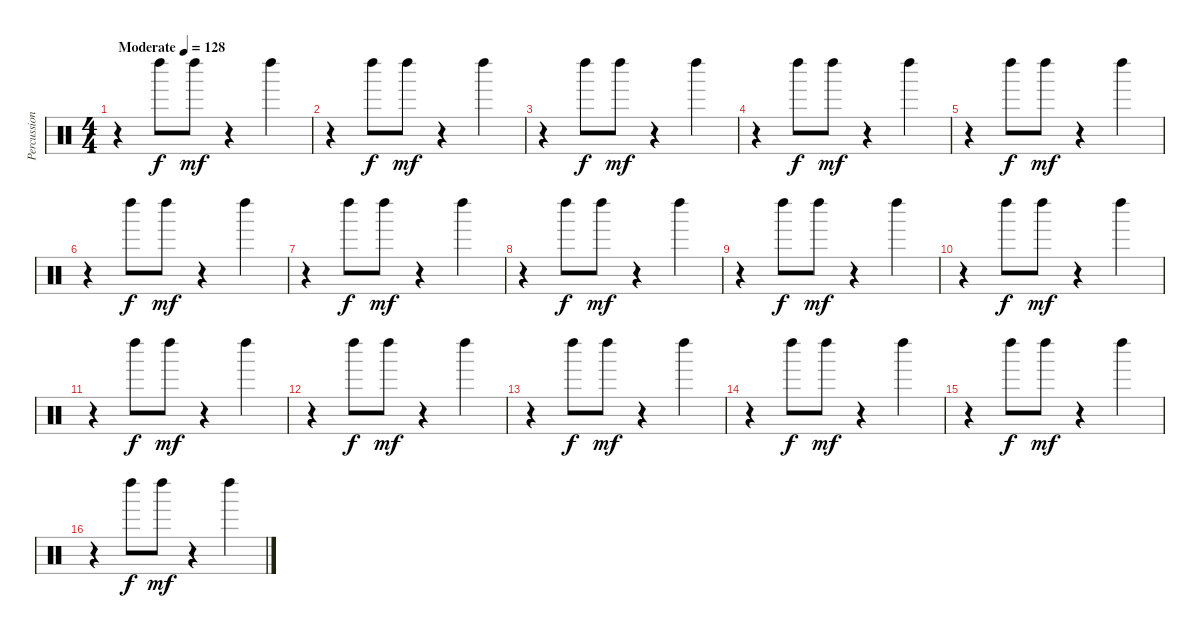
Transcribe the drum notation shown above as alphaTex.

\track ("Percussion" "Percussion") {instrument percussion}
\staff {score}
\articulation defaults
\ts (4 4)
\tempo (128 "Moderate")
\clef neutral
\ks c
r.4{dy f} "Left Maraca (hit)".8 "Left Maraca (hit)".8{dy mf} r.4 "Left Maraca (hit)".4 |
r.4 "Left Maraca (hit)".8{dy f} "Left Maraca (hit)".8{dy mf} r.4 "Left Maraca (hit)".4 |
r.4 "Left Maraca (hit)".8{dy f} "Left Maraca (hit)".8{dy mf} r.4 "Left Maraca (hit)".4 |
r.4 "Left Maraca (hit)".8{dy f} "Left Maraca (hit)".8{dy mf} r.4 "Left Maraca (hit)".4 |
r.4 "Left Maraca (hit)".8{dy f} "Left Maraca (hit)".8{dy mf} r.4 "Left Maraca (hit)".4 |
r.4 "Left Maraca (hit)".8{dy f} "Left Maraca (hit)".8{dy mf} r.4 "Left Maraca (hit)".4 |
r.4 "Left Maraca (hit)".8{dy f} "Left Maraca (hit)".8{dy mf} r.4 "Left Maraca (hit)".4 |
r.4 "Left Maraca (hit)".8{dy f} "Left Maraca (hit)".8{dy mf} r.4 "Left Maraca (hit)".4 |
r.4 "Left Maraca (hit)".8{dy f} "Left Maraca (hit)".8{dy mf} r.4 "Left Maraca (hit)".4 |
r.4 "Left Maraca (hit)".8{dy f} "Left Maraca (hit)".8{dy mf} r.4 "Left Maraca (hit)".4 |
r.4 "Left Maraca (hit)".8{dy f} "Left Maraca (hit)".8{dy mf} r.4 "Left Maraca (hit)".4 |
r.4 "Left Maraca (hit)".8{dy f} "Left Maraca (hit)".8{dy mf} r.4 "Left Maraca (hit)".4 |
r.4 "Left Maraca (hit)".8{dy f} "Left Maraca (hit)".8{dy mf} r.4 "Left Maraca (hit)".4 |
r.4 "Left Maraca (hit)".8{dy f} "Left Maraca (hit)".8{dy mf} r.4 "Left Maraca (hit)".4 |
r.4 "Left Maraca (hit)".8{dy f} "Left Maraca (hit)".8{dy mf} r.4 "Left Maraca (hit)".4 |
r.4 "Left Maraca (hit)".8{dy f} "Left Maraca (hit)".8{dy mf} r.4 "Left Maraca (hit)".4
